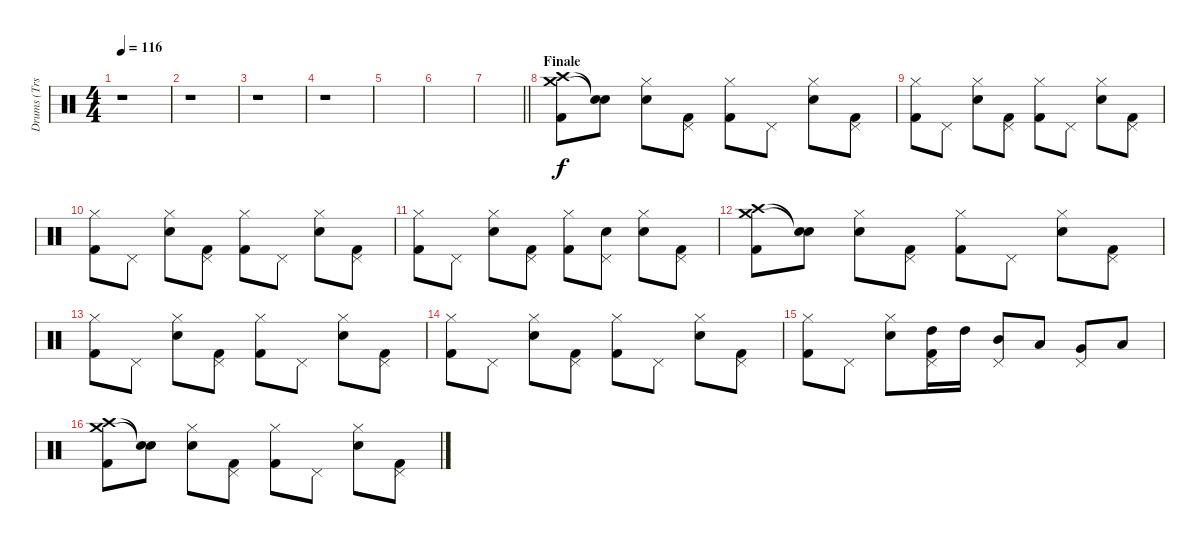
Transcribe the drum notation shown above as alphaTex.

\track ("Drums (Trs. 7-8A, 10A/7-8B, 10B, 12-13B)" "Drums (Trs") {mute instrument percussion}
\staff {score}
\articulation defaults
\ts (4 4)
\tempo 116
\clef neutral
\ks c
r.1{dy f} |
r.1 |
r.1 |
r.1 |
|
|
\barLineRight lightlight
|
\section ("" "Finale")
("Crash medium (hit)" "Crash high (hit)" "Kick (hit) 2").8 ("Snare (hit)"{t} "Snare (hit)"{t}).8 ("Electric Snare (hit)" "Hi-Hat (closed)").8 ("Pedal Hi-Hat (hit)" "Kick (hit) 2").8 ("Hi-Hat (closed)" "Kick (hit) 2").8 "Pedal Hi-Hat (hit)".8 ("Electric Snare (hit)" "Hi-Hat (closed)").8 ("Pedal Hi-Hat (hit)" "Kick (hit) 2").8 |
("Hi-Hat (closed)" "Kick (hit) 2").8 "Pedal Hi-Hat (hit)".8 ("Electric Snare (hit)" "Hi-Hat (closed)").8 ("Pedal Hi-Hat (hit)" "Kick (hit) 2").8 ("Hi-Hat (closed)" "Kick (hit) 2").8 "Pedal Hi-Hat (hit)".8 ("Electric Snare (hit)" "Hi-Hat (closed)").8 ("Pedal Hi-Hat (hit)" "Kick (hit) 2").8 |
("Hi-Hat (closed)" "Kick (hit) 2").8 "Pedal Hi-Hat (hit)".8 ("Electric Snare (hit)" "Hi-Hat (closed)").8 ("Pedal Hi-Hat (hit)" "Kick (hit) 2").8 ("Hi-Hat (closed)" "Kick (hit) 2").8 "Pedal Hi-Hat (hit)".8 ("Electric Snare (hit)" "Hi-Hat (closed)").8 ("Pedal Hi-Hat (hit)" "Kick (hit) 2").8 |
("Hi-Hat (closed)" "Kick (hit) 2").8 "Pedal Hi-Hat (hit)".8 ("Electric Snare (hit)" "Hi-Hat (closed)").8 ("Pedal Hi-Hat (hit)" "Kick (hit) 2").8 ("Hi-Hat (closed)" "Kick (hit) 2").8 ("Electric Snare (hit)" "Pedal Hi-Hat (hit)").8 ("Electric Snare (hit)" "Hi-Hat (closed)").8 ("Pedal Hi-Hat (hit)" "Kick (hit) 2").8 |
("Crash medium (hit)" "Crash high (hit)" "Kick (hit) 2").8 ("Snare (hit)"{t} "Snare (hit)"{t}).8 ("Electric Snare (hit)" "Hi-Hat (closed)").8 ("Pedal Hi-Hat (hit)" "Kick (hit) 2").8 ("Hi-Hat (closed)" "Kick (hit) 2").8 "Pedal Hi-Hat (hit)".8 ("Electric Snare (hit)" "Hi-Hat (closed)").8 ("Pedal Hi-Hat (hit)" "Kick (hit) 2").8 |
("Hi-Hat (closed)" "Kick (hit) 2").8 "Pedal Hi-Hat (hit)".8 ("Electric Snare (hit)" "Hi-Hat (closed)").8 ("Pedal Hi-Hat (hit)" "Kick (hit) 2").8 ("Hi-Hat (closed)" "Kick (hit) 2").8 "Pedal Hi-Hat (hit)".8 ("Electric Snare (hit)" "Hi-Hat (closed)").8 ("Pedal Hi-Hat (hit)" "Kick (hit) 2").8 |
("Hi-Hat (closed)" "Kick (hit) 2").8 "Pedal Hi-Hat (hit)".8 ("Electric Snare (hit)" "Hi-Hat (closed)").8 ("Pedal Hi-Hat (hit)" "Kick (hit) 2").8 ("Hi-Hat (closed)" "Kick (hit) 2").8 "Pedal Hi-Hat (hit)".8 ("Electric Snare (hit)" "Hi-Hat (closed)").8 ("Pedal Hi-Hat (hit)" "Kick (hit) 2").8 |
("Hi-Hat (closed)" "Kick (hit) 2").8 "Pedal Hi-Hat (hit)".8 ("Electric Snare (hit)" "Hi-Hat (closed)").8 ("Pedal Hi-Hat (hit)" "High Tom (hit)" "Kick (hit) 2").16 "High Tom (hit)".16 ("Pedal Hi-Hat (hit)" "Mid Tom (hit)").8 "Low Tom (hit)".8 ("Pedal Hi-Hat (hit)" "Very Low Tom (hit)").8 "Low Floor Tom (hit)".8 |
("Crash medium (hit)" "Crash high (hit)" "Kick (hit) 2").8 ("Snare (hit)"{t} "Snare (hit)"{t}).8 ("Electric Snare (hit)" "Hi-Hat (closed)").8 ("Pedal Hi-Hat (hit)" "Kick (hit) 2").8 ("Hi-Hat (closed)" "Kick (hit) 2").8 "Pedal Hi-Hat (hit)".8 ("Electric Snare (hit)" "Hi-Hat (closed)").8 ("Pedal Hi-Hat (hit)" "Kick (hit) 2").8
